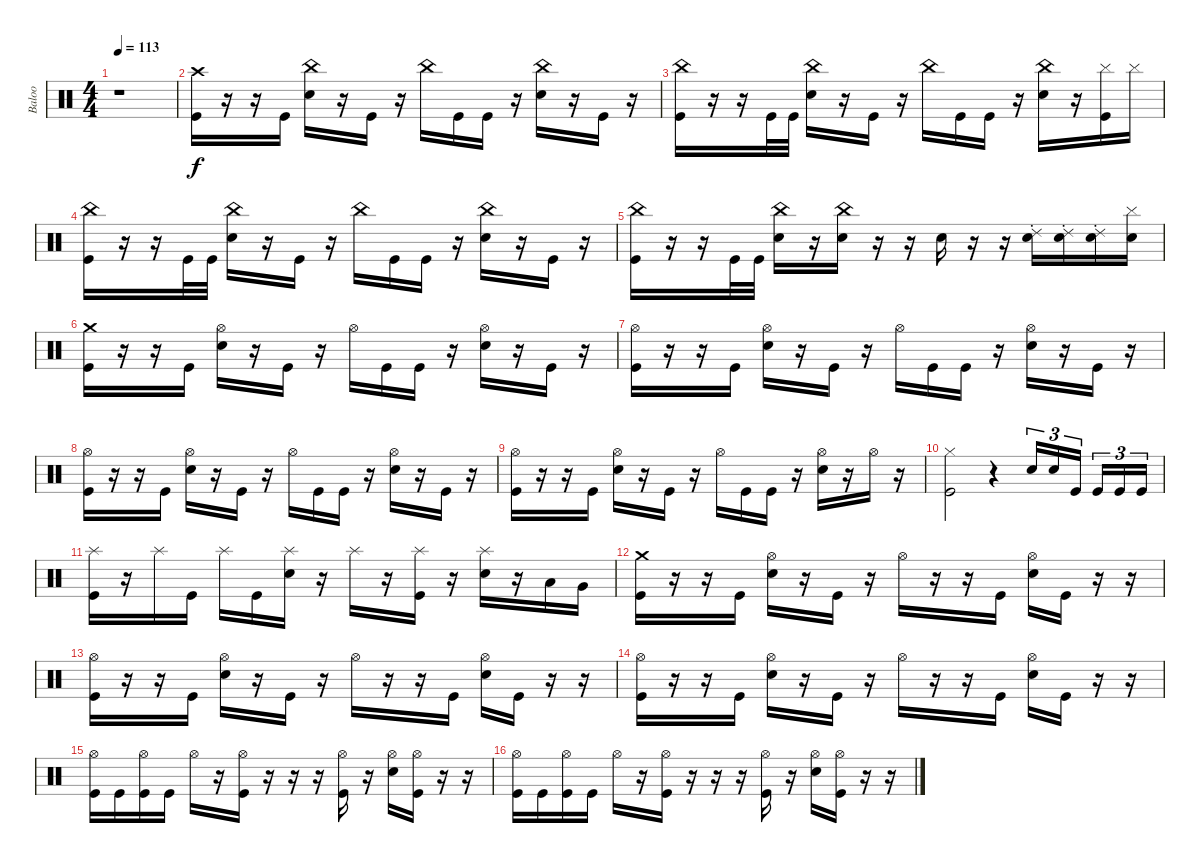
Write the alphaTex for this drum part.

\track ("Baloo" "Baloo") {instrument percussion}
\staff {score}
\articulation defaults
\ts (4 4)
\tempo 113
\clef neutral
\ks c
r.1{dy f} |
("Crash high (hit)" "Kick (hit)").16 r.16 r.16 "Kick (hit)".16 ("China (hit)" "Electric Snare (hit)").16 r.16 "Kick (hit)".16 r.16 "China (hit)".16 "Kick (hit)".16 "Kick (hit)".16 r.16 ("China (hit)" "Electric Snare (hit)").16 r.16 "Kick (hit)".16 r.16 |
("China (hit)" "Kick (hit)").16 r.16 r.16 "Kick (hit)".32 "Kick (hit)".32 ("China (hit)" "Electric Snare (hit)").16 r.16 "Kick (hit)".16 r.16 "China (hit)".16 "Kick (hit)".16 "Kick (hit)".16 r.16 ("China (hit)" "Electric Snare (hit)").16 r.16 ("Cymbal (hit)" "Kick (hit)").16 "Cymbal (hit)".16 |
("China (hit)" "Kick (hit)").16 r.16 r.16 "Kick (hit)".32 "Kick (hit)".32 ("China (hit)" "Electric Snare (hit)").16 r.16 "Kick (hit)".16 r.16 "China (hit)".16 "Kick (hit)".16 "Kick (hit)".16 r.16 ("China (hit)" "Electric Snare (hit)").16 r.16 "Kick (hit)".16 r.16 |
("China (hit)" "Kick (hit)").16 r.16 r.16 "Kick (hit)".32 "Kick (hit)".32 ("China (hit)" "Electric Snare (hit)").16 r.16 ("China (hit)" "Electric Snare (hit)").16 r.16 r.16 "Electric Snare (hit)".16 r.16 r.16 ("Ride (choke) 2" "Electric Snare (hit)").16 ("Ride (choke) 2" "Electric Snare (hit)").16 ("Ride (choke) 2" "Electric Snare (hit)").16 ("Cymbal (hit)" "Electric Snare (hit)").16 |
("Crash medium (hit)" "Kick (hit)").16 r.16 r.16 "Kick (hit)".16 ("Hi-Hat (open)" "Electric Snare (hit)").16 r.16 "Kick (hit)".16 r.16 "Hi-Hat (open)".16 "Kick (hit)".16 "Kick (hit)".16 r.16 ("Hi-Hat (open)" "Electric Snare (hit)").16 r.16 "Kick (hit)".16 r.16 |
("Hi-Hat (open)" "Kick (hit)").16 r.16 r.16 "Kick (hit)".16 ("Hi-Hat (open)" "Electric Snare (hit)").16 r.16 "Kick (hit)".16 r.16 "Hi-Hat (open)".16 "Kick (hit)".16 "Kick (hit)".16 r.16 ("Hi-Hat (open)" "Electric Snare (hit)").16 r.16 "Kick (hit)".16 r.16 |
("Hi-Hat (open)" "Kick (hit)").16 r.16 r.16 "Kick (hit)".16 ("Hi-Hat (open)" "Electric Snare (hit)").16 r.16 "Kick (hit)".16 r.16 "Hi-Hat (open)".16 "Kick (hit)".16 "Kick (hit)".16 r.16 ("Hi-Hat (open)" "Electric Snare (hit)").16 r.16 "Kick (hit)".16 r.16 |
("Hi-Hat (open)" "Kick (hit)").16 r.16 r.16 "Kick (hit)".16 ("Hi-Hat (open)" "Electric Snare (hit)").16 r.16 "Kick (hit)".16 r.16 "Hi-Hat (open)".16 "Kick (hit)".16 "Kick (hit)".16 r.16 ("Hi-Hat (open)" "Electric Snare (hit)").16 r.16 "Hi-Hat (open)".16 r.16 |
("Hi-Hat (closed)" "Kick (hit)").2 r.4 "Electric Snare (hit)".16{tu (3 2)} "Electric Snare (hit)".16{tu (3 2)} "Kick (hit)".16{tu (3 2)} "Kick (hit)".16{tu (3 2)} "Kick (hit)".16{tu (3 2)} "Kick (hit)".16{tu (3 2)} |
("Splash (hit)" "Kick (hit)").16 r.16 "Splash (hit)".16 "Kick (hit)".16 "Splash (hit)".16 "Kick (hit)".16 ("Splash (hit)" "Electric Snare (hit)").16 r.16 "Splash (hit)".16 r.16 ("Splash (hit)" "Kick (hit)").16 r.16 ("Splash (hit)" "Electric Snare (hit)").16 r.16 "Low Tom (hit)".16 "Very Low Tom (hit)".16 |
("Crash medium (hit)" "Kick (hit)").16 r.16 r.16 "Kick (hit)".16 ("Hi-Hat (open)" "Electric Snare (hit)").16 r.16 "Kick (hit)".16 r.16 "Hi-Hat (open)".16 r.16 r.16 "Kick (hit)".16 ("Hi-Hat (open)" "Electric Snare (hit)").16 "Kick (hit)".16 r.16 r.16 |
("Hi-Hat (open)" "Kick (hit)").16 r.16 r.16 "Kick (hit)".16 ("Hi-Hat (open)" "Electric Snare (hit)").16 r.16 "Kick (hit)".16 r.16 "Hi-Hat (open)".16 r.16 r.16 "Kick (hit)".16 ("Hi-Hat (open)" "Electric Snare (hit)").16 "Kick (hit)".16 r.16 r.16 |
("Hi-Hat (open)" "Kick (hit)").16 r.16 r.16 "Kick (hit)".16 ("Hi-Hat (open)" "Electric Snare (hit)").16 r.16 "Kick (hit)".16 r.16 "Hi-Hat (open)".16 r.16 r.16 "Kick (hit)".16 ("Hi-Hat (open)" "Electric Snare (hit)").16 "Kick (hit)".16 r.16 r.16 |
("Hi-Hat (open)" "Kick (hit)").16 "Kick (hit)".16 ("Hi-Hat (open)" "Kick (hit)").16 "Kick (hit)".16 "Hi-Hat (open)".16 r.16 ("Hi-Hat (open)" "Kick (hit)").16 r.16 r.16 r.16 ("Hi-Hat (open)" "Kick (hit)").16 r.16 ("Hi-Hat (open)" "Electric Snare (hit)").16 ("Hi-Hat (open)" "Kick (hit)").16 r.16 r.16 |
("Hi-Hat (open)" "Kick (hit)").16 "Kick (hit)".16 ("Hi-Hat (open)" "Kick (hit)").16 "Kick (hit)".16 "Hi-Hat (open)".16 r.16 ("Hi-Hat (open)" "Kick (hit)").16 r.16 r.16 r.16 ("Hi-Hat (open)" "Kick (hit)").16 r.16 ("Hi-Hat (open)" "Electric Snare (hit)").16 ("Hi-Hat (open)" "Kick (hit)").16 r.16 r.16
